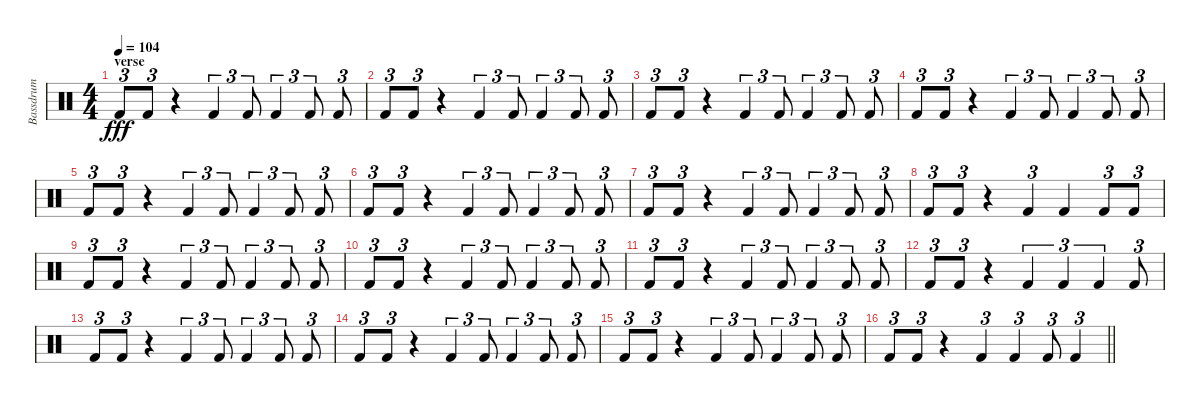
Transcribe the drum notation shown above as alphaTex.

\track ("Bassdrum" "Bassdrum") {instrument percussion}
\staff {score}
\articulation defaults
\ts (4 4)
\section ("" "verse")
\tempo 104
\clef neutral
\ks c "Kick (hit) 2".8{tu (3 2) dy fff} "Kick (hit) 2".8{tu (3 2)}
r.4 "Kick (hit) 2".4{tu (3 2)} "Kick (hit) 2".8{tu (3 2)} "Kick (hit) 2".4{tu (3 2)} "Kick (hit) 2".8{tu (3 2)} "Kick (hit) 2".8{tu (3 2)} |
"Kick (hit) 2".8{tu (3 2)} "Kick (hit) 2".8{tu (3 2)} r.4 "Kick (hit) 2".4{tu (3 2)} "Kick (hit) 2".8{tu (3 2)} "Kick (hit) 2".4{tu (3 2)} "Kick (hit) 2".8{tu (3 2)} "Kick (hit) 2".8{tu (3 2)} |
"Kick (hit) 2".8{tu (3 2)} "Kick (hit) 2".8{tu (3 2)} r.4 "Kick (hit) 2".4{tu (3 2)} "Kick (hit) 2".8{tu (3 2)} "Kick (hit) 2".4{tu (3 2)} "Kick (hit) 2".8{tu (3 2)} "Kick (hit) 2".8{tu (3 2)} |
"Kick (hit) 2".8{tu (3 2)} "Kick (hit) 2".8{tu (3 2)} r.4 "Kick (hit) 2".4{tu (3 2)} "Kick (hit) 2".8{tu (3 2)} "Kick (hit) 2".4{tu (3 2)} "Kick (hit) 2".8{tu (3 2)} "Kick (hit) 2".8{tu (3 2)} |
"Kick (hit) 2".8{tu (3 2)} "Kick (hit) 2".8{tu (3 2)} r.4 "Kick (hit) 2".4{tu (3 2)} "Kick (hit) 2".8{tu (3 2)} "Kick (hit) 2".4{tu (3 2)} "Kick (hit) 2".8{tu (3 2)} "Kick (hit) 2".8{tu (3 2)} |
"Kick (hit) 2".8{tu (3 2)} "Kick (hit) 2".8{tu (3 2)} r.4 "Kick (hit) 2".4{tu (3 2)} "Kick (hit) 2".8{tu (3 2)} "Kick (hit) 2".4{tu (3 2)} "Kick (hit) 2".8{tu (3 2)} "Kick (hit) 2".8{tu (3 2)} |
"Kick (hit) 2".8{tu (3 2)} "Kick (hit) 2".8{tu (3 2)} r.4 "Kick (hit) 2".4{tu (3 2)} "Kick (hit) 2".8{tu (3 2)} "Kick (hit) 2".4{tu (3 2)} "Kick (hit) 2".8{tu (3 2)} "Kick (hit) 2".8{tu (3 2)} |
"Kick (hit) 2".8{tu (3 2)} "Kick (hit) 2".8{tu (3 2)} r.4 "Kick (hit) 2".4{tu (3 2)} "Kick (hit) 2".4 "Kick (hit) 2".8{tu (3 2)} "Kick (hit) 2".8{tu (3 2)} |
"Kick (hit) 2".8{tu (3 2)} "Kick (hit) 2".8{tu (3 2)} r.4 "Kick (hit) 2".4{tu (3 2)} "Kick (hit) 2".8{tu (3 2)} "Kick (hit) 2".4{tu (3 2)} "Kick (hit) 2".8{tu (3 2)} "Kick (hit) 2".8{tu (3 2)} |
"Kick (hit) 2".8{tu (3 2)} "Kick (hit) 2".8{tu (3 2)} r.4 "Kick (hit) 2".4{tu (3 2)} "Kick (hit) 2".8{tu (3 2)} "Kick (hit) 2".4{tu (3 2)} "Kick (hit) 2".8{tu (3 2)} "Kick (hit) 2".8{tu (3 2)} |
"Kick (hit) 2".8{tu (3 2)} "Kick (hit) 2".8{tu (3 2)} r.4 "Kick (hit) 2".4{tu (3 2)} "Kick (hit) 2".8{tu (3 2)} "Kick (hit) 2".4{tu (3 2)} "Kick (hit) 2".8{tu (3 2)} "Kick (hit) 2".8{tu (3 2)} |
"Kick (hit) 2".8{tu (3 2)} "Kick (hit) 2".8{tu (3 2)} r.4 "Kick (hit) 2".4{tu (3 2)} "Kick (hit) 2".4{tu (3 2)} "Kick (hit) 2".4{tu (3 2)} "Kick (hit) 2".8{tu (3 2)} |
"Kick (hit) 2".8{tu (3 2)} "Kick (hit) 2".8{tu (3 2)} r.4 "Kick (hit) 2".4{tu (3 2)} "Kick (hit) 2".8{tu (3 2)} "Kick (hit) 2".4{tu (3 2)} "Kick (hit) 2".8{tu (3 2)} "Kick (hit) 2".8{tu (3 2)} |
"Kick (hit) 2".8{tu (3 2)} "Kick (hit) 2".8{tu (3 2)} r.4 "Kick (hit) 2".4{tu (3 2)} "Kick (hit) 2".8{tu (3 2)} "Kick (hit) 2".4{tu (3 2)} "Kick (hit) 2".8{tu (3 2)} "Kick (hit) 2".8{tu (3 2)} |
"Kick (hit) 2".8{tu (3 2)} "Kick (hit) 2".8{tu (3 2)} r.4 "Kick (hit) 2".4{tu (3 2)} "Kick (hit) 2".8{tu (3 2)} "Kick (hit) 2".4{tu (3 2)} "Kick (hit) 2".8{tu (3 2)} "Kick (hit) 2".8{tu (3 2)} |
\barLineRight lightlight "Kick (hit) 2".8{tu (3 2)} "Kick (hit) 2".8{tu (3 2)}
r.4 "Kick (hit) 2".4{tu (3 2)} "Kick (hit) 2".4{tu (3 2)} "Kick (hit) 2".8{tu (3 2)} "Kick (hit) 2".4{tu (3 2)}
